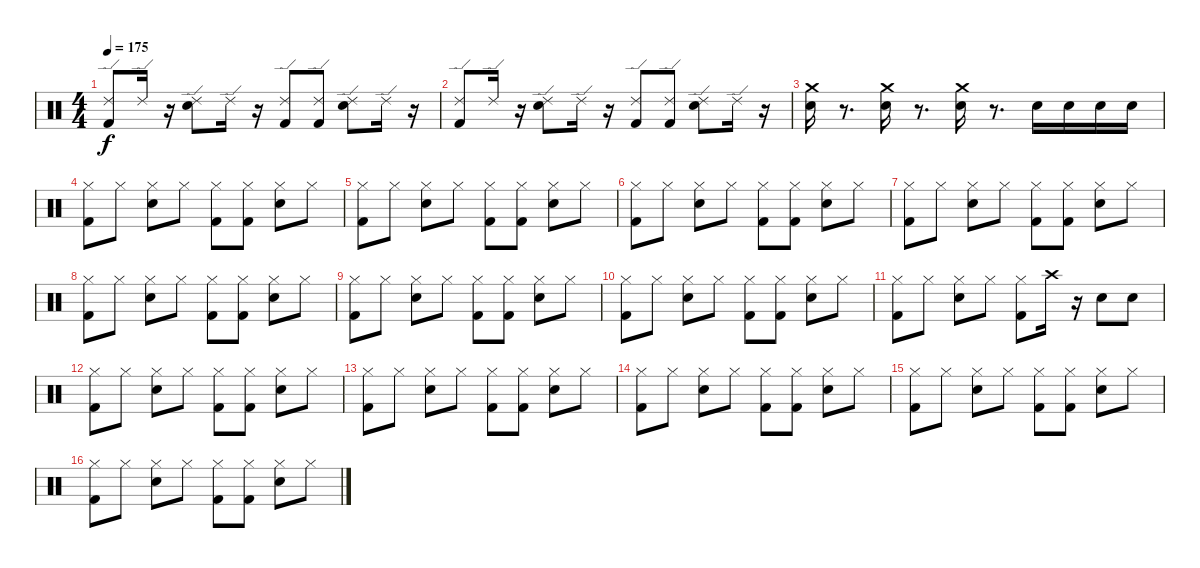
\track "" {instrument percussion}
\staff {score}
\articulation defaults
\ts (4 4)
\tempo 175
\clef neutral
\ks c
("Ride (edge) 2" "Kick (hit) 2").8{dy f} "Ride (edge) 2".16 r.16 ("Ride (edge) 2" "Electric Snare (hit)").8 "Ride (edge) 2".16 r.16 ("Ride (edge) 2" "Kick (hit) 2").8 ("Ride (edge) 2" "Kick (hit) 2").8 ("Ride (edge) 2" "Electric Snare (hit)").8 "Ride (edge) 2".16 r.16 |
("Ride (edge) 2" "Kick (hit) 2").8 "Ride (edge) 2".16 r.16 ("Ride (edge) 2" "Electric Snare (hit)").8 "Ride (edge) 2".16 r.16 ("Ride (edge) 2" "Kick (hit) 2").8 ("Ride (edge) 2" "Kick (hit) 2").8 ("Ride (edge) 2" "Electric Snare (hit)").8 "Ride (edge) 2".16 r.16 |
("Crash medium (hit)" "Electric Snare (hit)").16 r.8{d} ("Electric Snare (hit)" "Crash medium (hit)").16 r.8{d} ("Crash medium (hit)" "Electric Snare (hit)").16 r.8{d} "Electric Snare (hit)".16 "Electric Snare (hit)".16 "Electric Snare (hit)".16 "Electric Snare (hit)".16 |
("Hi-Hat (closed)" "Kick (hit) 2").8 "Hi-Hat (closed)".8 ("Hi-Hat (closed)" "Electric Snare (hit)").8 "Hi-Hat (closed)".8 ("Hi-Hat (closed)" "Kick (hit) 2").8 ("Hi-Hat (closed)" "Kick (hit) 2").8 ("Hi-Hat (closed)" "Electric Snare (hit)").8 "Hi-Hat (closed)".8 |
("Hi-Hat (closed)" "Kick (hit) 2").8 "Hi-Hat (closed)".8 ("Hi-Hat (closed)" "Electric Snare (hit)").8 "Hi-Hat (closed)".8 ("Hi-Hat (closed)" "Kick (hit) 2").8 ("Hi-Hat (closed)" "Kick (hit) 2").8 ("Hi-Hat (closed)" "Electric Snare (hit)").8 "Hi-Hat (closed)".8 |
("Hi-Hat (closed)" "Kick (hit) 2").8 "Hi-Hat (closed)".8 ("Hi-Hat (closed)" "Electric Snare (hit)").8 "Hi-Hat (closed)".8 ("Hi-Hat (closed)" "Kick (hit) 2").8 ("Hi-Hat (closed)" "Kick (hit) 2").8 ("Hi-Hat (closed)" "Electric Snare (hit)").8 "Hi-Hat (closed)".8 |
("Hi-Hat (closed)" "Kick (hit) 2").8 "Hi-Hat (closed)".8 ("Hi-Hat (closed)" "Electric Snare (hit)").8 "Hi-Hat (closed)".8 ("Hi-Hat (closed)" "Kick (hit) 2").8 ("Hi-Hat (closed)" "Kick (hit) 2").8 ("Hi-Hat (closed)" "Electric Snare (hit)").8 "Hi-Hat (closed)".8 |
("Hi-Hat (closed)" "Kick (hit) 2").8 "Hi-Hat (closed)".8 ("Hi-Hat (closed)" "Electric Snare (hit)").8 "Hi-Hat (closed)".8 ("Hi-Hat (closed)" "Kick (hit) 2").8 ("Hi-Hat (closed)" "Kick (hit) 2").8 ("Hi-Hat (closed)" "Electric Snare (hit)").8 "Hi-Hat (closed)".8 |
("Hi-Hat (closed)" "Kick (hit) 2").8 "Hi-Hat (closed)".8 ("Hi-Hat (closed)" "Electric Snare (hit)").8 "Hi-Hat (closed)".8 ("Hi-Hat (closed)" "Kick (hit) 2").8 ("Hi-Hat (closed)" "Kick (hit) 2").8 ("Hi-Hat (closed)" "Electric Snare (hit)").8 "Hi-Hat (closed)".8 |
("Hi-Hat (closed)" "Kick (hit) 2").8 "Hi-Hat (closed)".8 ("Hi-Hat (closed)" "Electric Snare (hit)").8 "Hi-Hat (closed)".8 ("Hi-Hat (closed)" "Kick (hit) 2").8 ("Hi-Hat (closed)" "Kick (hit) 2").8 ("Hi-Hat (closed)" "Electric Snare (hit)").8 "Hi-Hat (closed)".8 |
("Hi-Hat (closed)" "Kick (hit) 2").8 "Hi-Hat (closed)".8 ("Hi-Hat (closed)" "Electric Snare (hit)").8 "Hi-Hat (closed)".8 ("Hi-Hat (closed)" "Kick (hit) 2").8 "Crash high (hit)".16 r.16 "Electric Snare (hit)".8 "Electric Snare (hit)".8 |
("Hi-Hat (closed)" "Kick (hit) 2").8 "Hi-Hat (closed)".8 ("Hi-Hat (closed)" "Electric Snare (hit)").8 "Hi-Hat (closed)".8 ("Hi-Hat (closed)" "Kick (hit) 2").8 ("Hi-Hat (closed)" "Kick (hit) 2").8 ("Hi-Hat (closed)" "Electric Snare (hit)").8 "Hi-Hat (closed)".8 |
("Hi-Hat (closed)" "Kick (hit) 2").8 "Hi-Hat (closed)".8 ("Hi-Hat (closed)" "Electric Snare (hit)").8 "Hi-Hat (closed)".8 ("Hi-Hat (closed)" "Kick (hit) 2").8 ("Hi-Hat (closed)" "Kick (hit) 2").8 ("Hi-Hat (closed)" "Electric Snare (hit)").8 "Hi-Hat (closed)".8 |
("Hi-Hat (closed)" "Kick (hit) 2").8 "Hi-Hat (closed)".8 ("Hi-Hat (closed)" "Electric Snare (hit)").8 "Hi-Hat (closed)".8 ("Hi-Hat (closed)" "Kick (hit) 2").8 ("Hi-Hat (closed)" "Kick (hit) 2").8 ("Hi-Hat (closed)" "Electric Snare (hit)").8 "Hi-Hat (closed)".8 |
("Hi-Hat (closed)" "Kick (hit) 2").8 "Hi-Hat (closed)".8 ("Hi-Hat (closed)" "Electric Snare (hit)").8 "Hi-Hat (closed)".8 ("Hi-Hat (closed)" "Kick (hit) 2").8 ("Hi-Hat (closed)" "Kick (hit) 2").8 ("Hi-Hat (closed)" "Electric Snare (hit)").8 "Hi-Hat (closed)".8 |
("Hi-Hat (closed)" "Kick (hit) 2").8 "Hi-Hat (closed)".8 ("Hi-Hat (closed)" "Electric Snare (hit)").8 "Hi-Hat (closed)".8 ("Hi-Hat (closed)" "Kick (hit) 2").8 ("Hi-Hat (closed)" "Kick (hit) 2").8 ("Hi-Hat (closed)" "Electric Snare (hit)").8 "Hi-Hat (closed)".8
